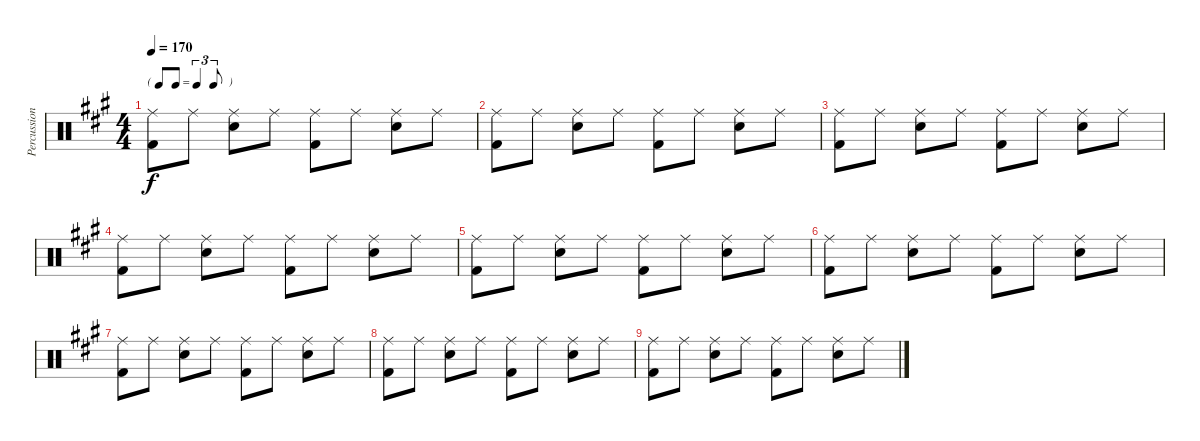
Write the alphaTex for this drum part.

\track ("Percussion" "Percussion") {instrument percussion}
\staff {score}
\articulation defaults
\ts (4 4)
\tf triplet8th
\tempo 170
\clef neutral
\ks a
("Ride (middle)" "Kick (hit) 2").8{dy f} "Ride (middle)".8 ("Ride (middle)" "Snare (hit) 2").8 "Ride (middle)".8 ("Ride (middle)" "Kick (hit) 2").8 "Ride (middle)".8 ("Ride (middle)" "Snare (hit) 2").8 "Ride (middle)".8 |
("Ride (middle)" "Kick (hit) 2").8 "Ride (middle)".8 ("Ride (middle)" "Snare (hit) 2").8 "Ride (middle)".8 ("Ride (middle)" "Kick (hit) 2").8 "Ride (middle)".8 ("Ride (middle)" "Snare (hit) 2").8 "Ride (middle)".8 |
("Ride (middle)" "Kick (hit) 2").8 "Ride (middle)".8 ("Ride (middle)" "Snare (hit) 2").8 "Ride (middle)".8 ("Ride (middle)" "Kick (hit) 2").8 "Ride (middle)".8 ("Ride (middle)" "Snare (hit) 2").8 "Ride (middle)".8 |
("Ride (middle)" "Kick (hit) 2").8 "Ride (middle)".8 ("Ride (middle)" "Snare (hit) 2").8 "Ride (middle)".8 ("Ride (middle)" "Kick (hit) 2").8 "Ride (middle)".8 ("Ride (middle)" "Snare (hit) 2").8 "Ride (middle)".8 |
("Ride (middle)" "Kick (hit) 2").8 "Ride (middle)".8 ("Ride (middle)" "Snare (hit) 2").8 "Ride (middle)".8 ("Ride (middle)" "Kick (hit) 2").8 "Ride (middle)".8 ("Ride (middle)" "Snare (hit) 2").8 "Ride (middle)".8 |
("Ride (middle)" "Kick (hit) 2").8{volume 0} "Ride (middle)".8 ("Ride (middle)" "Snare (hit) 2").8 "Ride (middle)".8 ("Ride (middle)" "Kick (hit) 2").8 "Ride (middle)".8 ("Ride (middle)" "Snare (hit) 2").8 "Ride (middle)".8 |
("Ride (middle)" "Kick (hit) 2").8 "Ride (middle)".8 ("Ride (middle)" "Snare (hit) 2").8 "Ride (middle)".8 ("Ride (middle)" "Kick (hit) 2").8 "Ride (middle)".8 ("Ride (middle)" "Snare (hit) 2").8 "Ride (middle)".8 |
("Ride (middle)" "Kick (hit) 2").8 "Ride (middle)".8 ("Ride (middle)" "Snare (hit) 2").8 "Ride (middle)".8 ("Ride (middle)" "Kick (hit) 2").8 "Ride (middle)".8 ("Ride (middle)" "Snare (hit) 2").8 "Ride (middle)".8 |
("Ride (middle)" "Kick (hit) 2").8 "Ride (middle)".8 ("Ride (middle)" "Snare (hit) 2").8 "Ride (middle)".8 ("Ride (middle)" "Kick (hit) 2").8 "Ride (middle)".8 ("Ride (middle)" "Snare (hit) 2").8 "Ride (middle)".8
